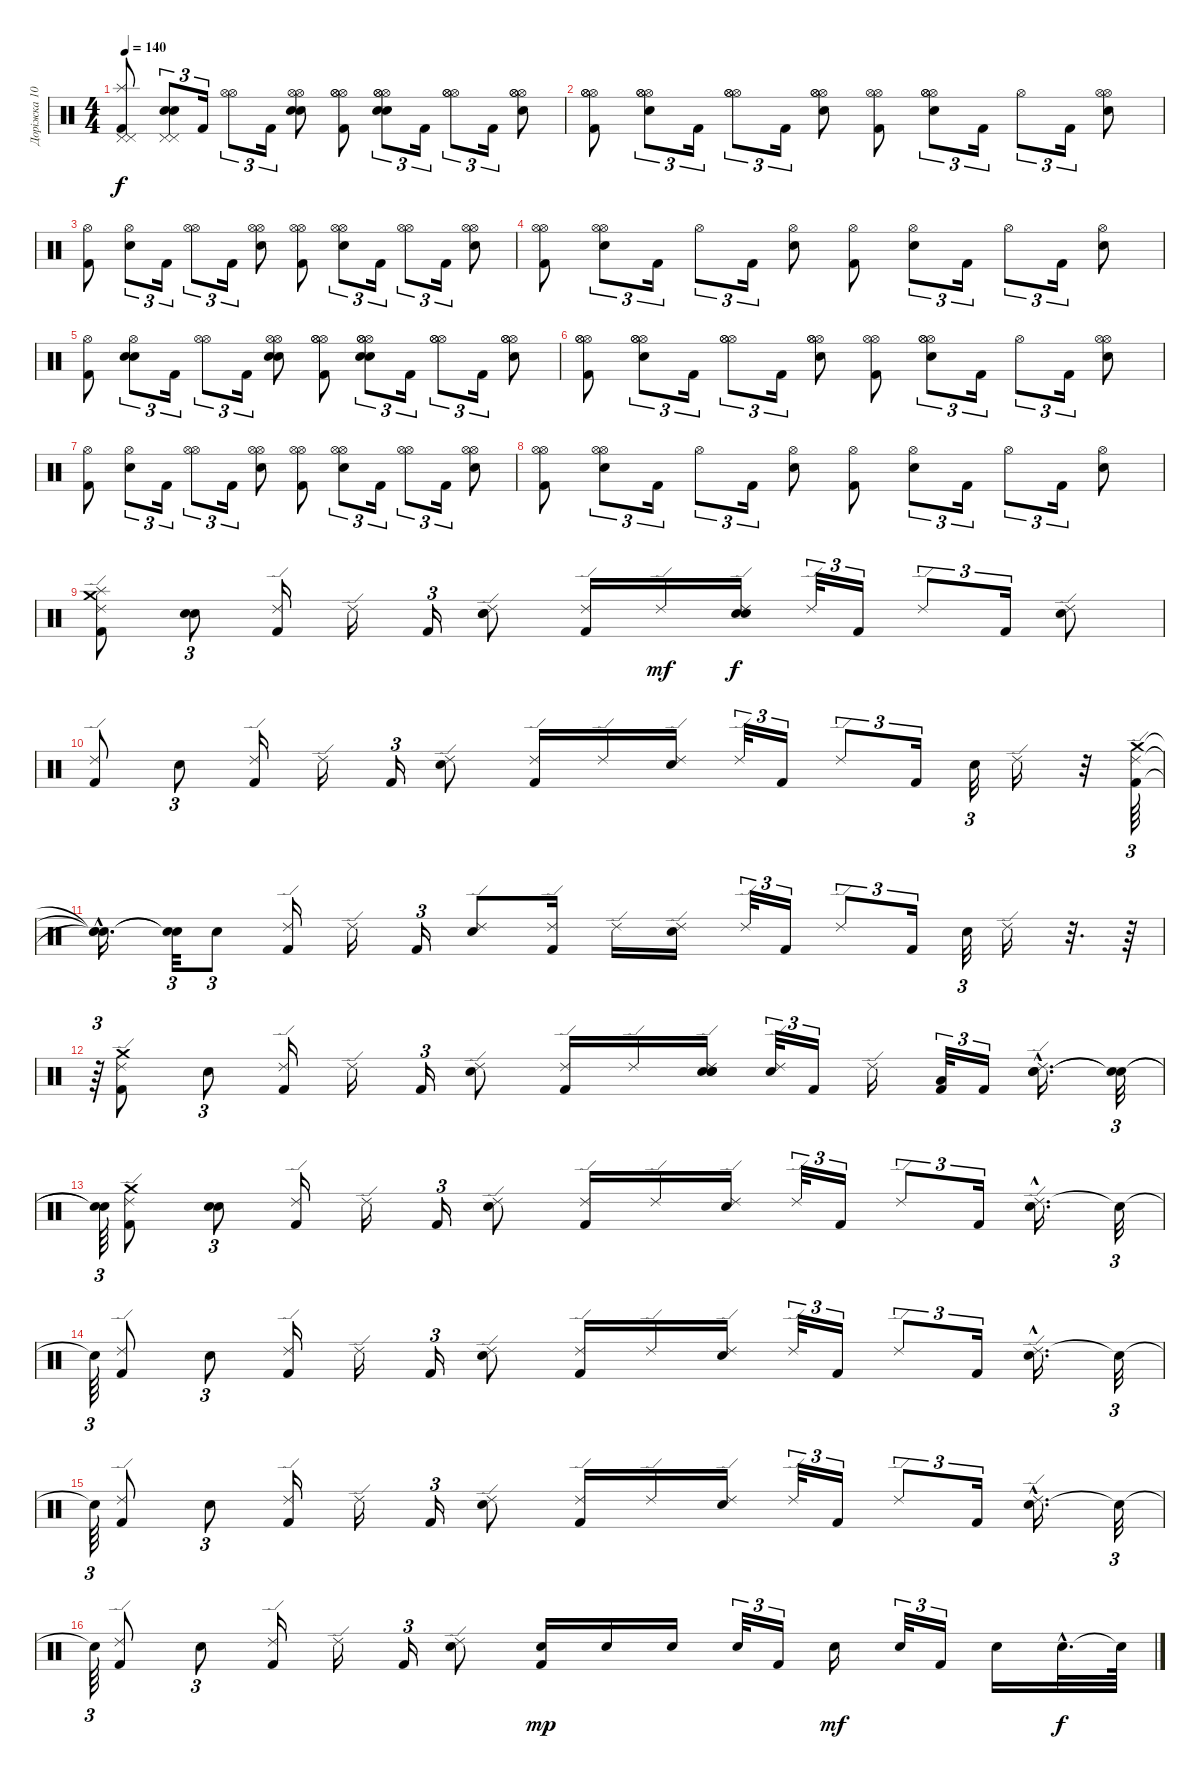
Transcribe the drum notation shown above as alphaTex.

\track ("Доріжка 10" "Доріжка 10") {instrument percussion}
\staff {score}
\articulation defaults
\ts (4 4)
\tempo 140
\clef neutral
\ks c
("Kick (hit) 2" "Splash (hit)" "Pedal Hi-Hat (hit)" "Pedal Hi-Hat (hit)").8{dy f} ("Electric Snare (hit)" "Pedal Hi-Hat (hit)" "Pedal Hi-Hat (hit)" "Electric Snare (hit)").8{tu (3 2)} "Kick (hit) 2".16{tu (3 2)} ("Hi-Hat (open)" "Hi-Hat (open)").8{tu (3 2)} "Kick (hit) 2".16{tu (3 2)} ("Hi-Hat (open)" "Hi-Hat (open)" "Electric Snare (hit)" "Electric Snare (hit)").8 ("Kick (hit) 2" "Hi-Hat (open)" "Hi-Hat (open)" "Hi-Hat (open)").8 ("Hi-Hat (open)" "Hi-Hat (open)" "Hi-Hat (open)" "Electric Snare (hit)" "Electric Snare (hit)").8{tu (3 2)} "Kick (hit) 2".16{tu (3 2)} ("Hi-Hat (open)" "Hi-Hat (open)" "Hi-Hat (open)").8{tu (3 2)} "Kick (hit) 2".16{tu (3 2)} ("Hi-Hat (open)" "Electric Snare (hit)" "Hi-Hat (open)" "Hi-Hat (open)").8 |
("Kick (hit) 2" "Hi-Hat (open)" "Hi-Hat (open)" "Hi-Hat (open)").8 ("Hi-Hat (open)" "Hi-Hat (open)" "Hi-Hat (open)" "Electric Snare (hit)").8{tu (3 2)} "Kick (hit) 2".16{tu (3 2)} ("Hi-Hat (open)" "Hi-Hat (open)" "Hi-Hat (open)").8{tu (3 2)} "Kick (hit) 2".16{tu (3 2)} ("Hi-Hat (open)" "Hi-Hat (open)" "Hi-Hat (open)" "Electric Snare (hit)").8 ("Kick (hit) 2" "Hi-Hat (open)" "Hi-Hat (open)").8 ("Electric Snare (hit)" "Hi-Hat (open)" "Hi-Hat (open)" "Hi-Hat (open)").8{tu (3 2)} "Kick (hit) 2".16{tu (3 2)} "Hi-Hat (open)".8{tu (3 2)} "Kick (hit) 2".16{tu (3 2)} ("Hi-Hat (open)" "Hi-Hat (open)" "Electric Snare (hit)").8 |
("Kick (hit) 2" "Hi-Hat (open)").8 ("Electric Snare (hit)" "Hi-Hat (open)").8{tu (3 2)} "Kick (hit) 2".16{tu (3 2)} ("Hi-Hat (open)" "Hi-Hat (open)").8{tu (3 2)} "Kick (hit) 2".16{tu (3 2)} ("Hi-Hat (open)" "Electric Snare (hit)" "Hi-Hat (open)").8 ("Kick (hit) 2" "Hi-Hat (open)" "Hi-Hat (open)").8 ("Hi-Hat (open)" "Hi-Hat (open)" "Electric Snare (hit)").8{tu (3 2)} "Kick (hit) 2".16{tu (3 2)} ("Hi-Hat (open)" "Hi-Hat (open)").8{tu (3 2)} "Kick (hit) 2".16{tu (3 2)} ("Hi-Hat (open)" "Electric Snare (hit)" "Hi-Hat (open)").8 |
("Kick (hit) 2" "Hi-Hat (open)" "Hi-Hat (open)").8 ("Electric Snare (hit)" "Hi-Hat (open)" "Hi-Hat (open)").8{tu (3 2)} "Kick (hit) 2".16{tu (3 2)} "Hi-Hat (open)".8{tu (3 2)} "Kick (hit) 2".16{tu (3 2)} ("Electric Snare (hit)" "Hi-Hat (open)").8 ("Hi-Hat (open)" "Kick (hit) 2").8 ("Hi-Hat (open)" "Electric Snare (hit)").8{tu (3 2)} "Kick (hit) 2".16{tu (3 2)} "Hi-Hat (open)".8{tu (3 2)} "Kick (hit) 2".16{tu (3 2)} ("Electric Snare (hit)" "Hi-Hat (open)").8 |
("Kick (hit) 2" "Hi-Hat (open)").8 ("Electric Snare (hit)" "Hi-Hat (open)" "Electric Snare (hit)").8{tu (3 2)} "Kick (hit) 2".16{tu (3 2)} ("Hi-Hat (open)" "Hi-Hat (open)").8{tu (3 2)} "Kick (hit) 2".16{tu (3 2)} ("Hi-Hat (open)" "Hi-Hat (open)" "Electric Snare (hit)" "Electric Snare (hit)").8 ("Kick (hit) 2" "Hi-Hat (open)" "Hi-Hat (open)" "Hi-Hat (open)").8 ("Hi-Hat (open)" "Hi-Hat (open)" "Hi-Hat (open)" "Electric Snare (hit)" "Electric Snare (hit)").8{tu (3 2)} "Kick (hit) 2".16{tu (3 2)} ("Hi-Hat (open)" "Hi-Hat (open)" "Hi-Hat (open)").8{tu (3 2)} "Kick (hit) 2".16{tu (3 2)} ("Hi-Hat (open)" "Electric Snare (hit)" "Hi-Hat (open)" "Hi-Hat (open)").8 |
("Kick (hit) 2" "Hi-Hat (open)" "Hi-Hat (open)" "Hi-Hat (open)").8 ("Hi-Hat (open)" "Hi-Hat (open)" "Hi-Hat (open)" "Electric Snare (hit)").8{tu (3 2)} "Kick (hit) 2".16{tu (3 2)} ("Hi-Hat (open)" "Hi-Hat (open)" "Hi-Hat (open)").8{tu (3 2)} "Kick (hit) 2".16{tu (3 2)} ("Hi-Hat (open)" "Hi-Hat (open)" "Hi-Hat (open)" "Electric Snare (hit)").8 ("Kick (hit) 2" "Hi-Hat (open)" "Hi-Hat (open)").8 ("Electric Snare (hit)" "Hi-Hat (open)" "Hi-Hat (open)" "Hi-Hat (open)").8{tu (3 2)} "Kick (hit) 2".16{tu (3 2)} "Hi-Hat (open)".8{tu (3 2)} "Kick (hit) 2".16{tu (3 2)} ("Hi-Hat (open)" "Hi-Hat (open)" "Electric Snare (hit)").8 |
("Kick (hit) 2" "Hi-Hat (open)").8 ("Electric Snare (hit)" "Hi-Hat (open)").8{tu (3 2)} "Kick (hit) 2".16{tu (3 2)} ("Hi-Hat (open)" "Hi-Hat (open)").8{tu (3 2)} "Kick (hit) 2".16{tu (3 2)} ("Hi-Hat (open)" "Electric Snare (hit)" "Hi-Hat (open)").8 ("Kick (hit) 2" "Hi-Hat (open)" "Hi-Hat (open)").8 ("Hi-Hat (open)" "Hi-Hat (open)" "Electric Snare (hit)").8{tu (3 2)} "Kick (hit) 2".16{tu (3 2)} ("Hi-Hat (open)" "Hi-Hat (open)").8{tu (3 2)} "Kick (hit) 2".16{tu (3 2)} ("Hi-Hat (open)" "Electric Snare (hit)" "Hi-Hat (open)").8 |
("Kick (hit) 2" "Hi-Hat (open)" "Hi-Hat (open)").8 ("Electric Snare (hit)" "Hi-Hat (open)" "Hi-Hat (open)").8{tu (3 2)} "Kick (hit) 2".16{tu (3 2)} "Hi-Hat (open)".8{tu (3 2)} "Kick (hit) 2".16{tu (3 2)} ("Electric Snare (hit)" "Hi-Hat (open)").8 ("Hi-Hat (open)" "Kick (hit) 2").8 ("Hi-Hat (open)" "Electric Snare (hit)").8{tu (3 2)} "Kick (hit) 2".16{tu (3 2)} "Hi-Hat (open)".8{tu (3 2)} "Kick (hit) 2".16{tu (3 2)} ("Electric Snare (hit)" "Hi-Hat (open)").8 |
("Ride (edge) 2" "Crash medium (hit)" "Kick (hit) 2" "Splash (hit)").8 ("Electric Snare (hit)" "Electric Snare (hit)").8{tu (3 2)} ("Ride (edge) 2" "Kick (hit) 2").16 "Ride (edge) 2".16 "Kick (hit) 2".16{tu (3 2)} ("Ride (edge) 2" "Electric Snare (hit)" "Electric Snare (hit)").8 ("Ride (edge) 2" "Kick (hit) 2").16 "Ride (edge) 2".16{dy mf} ("Ride (edge) 2" "Electric Snare (hit)" "Electric Snare (hit)").16{dy f} "Ride (edge) 2".32{tu (3 2)} "Kick (hit) 2".16{tu (3 2)} "Ride (edge) 2".8{tu (3 2)} "Kick (hit) 2".16{tu (3 2)} ("Electric Snare (hit)" "Ride (edge) 2").8 |
("Ride (edge) 2" "Kick (hit) 2").8 "Electric Snare (hit)".8{tu (3 2)} ("Ride (edge) 2" "Kick (hit) 2").16 "Ride (edge) 2".16 "Kick (hit) 2".16{tu (3 2)} ("Ride (edge) 2" "Electric Snare (hit)").8 ("Ride (edge) 2" "Kick (hit) 2").16 "Ride (edge) 2".16 ("Ride (edge) 2" "Electric Snare (hit)").16 "Ride (edge) 2".32{tu (3 2)} "Kick (hit) 2".16{tu (3 2)} "Ride (edge) 2".8{tu (3 2)} "Kick (hit) 2".16{tu (3 2)} "Electric Snare (hit)".32{tu (3 2)} "Ride (edge) 2".16 r.32 ("Ride (edge) 2" "Crash medium (hit)" "Kick (hit) 2").64{tu (3 2)} |
("Snare (hit)"{hac t} "Snare (hit)"{hac t} "Snare (hit)"{hac t}).16{d} ("Snare (hit)"{t} "Snare (hit)"{t}).32{tu (3 2)} "Electric Snare (hit)".8{tu (3 2)} ("Kick (hit) 2" "Ride (edge) 2").16 "Ride (edge) 2".16 "Kick (hit) 2".16{tu (3 2)} ("Ride (edge) 2" "Electric Snare (hit)").8 ("Ride (edge) 2" "Kick (hit) 2").16 "Ride (edge) 2".16 ("Ride (edge) 2" "Electric Snare (hit)").16 "Ride (edge) 2".32{tu (3 2)} "Kick (hit) 2".16{tu (3 2)} "Ride (edge) 2".8{tu (3 2)} "Kick (hit) 2".16{tu (3 2)} "Electric Snare (hit)".32{tu (3 2)} "Ride (edge) 2".16 r.32{d} r.64 |
r.64{tu (3 2)} ("Ride (edge) 2" "Crash medium (hit)" "Kick (hit) 2").8 "Electric Snare (hit)".8{tu (3 2)} ("Kick (hit) 2" "Ride (edge) 2").16 "Ride (edge) 2".16 "Kick (hit) 2".16{tu (3 2)} ("Ride (edge) 2" "Electric Snare (hit)").8 ("Ride (edge) 2" "Kick (hit) 2").16 "Ride (edge) 2".16 ("Ride (edge) 2" "Electric Snare (hit)" "Electric Snare (hit)" "Electric Snare (hit)").16 ("Ride (edge) 2" "Electric Snare (hit)").32{tu (3 2)} "Kick (hit) 2".16{tu (3 2)} "Ride (edge) 2".16 ("Kick (hit) 2" "Low Tom (hit)").32{tu (3 2)} "Kick (hit) 2".16{tu (3 2)} ("Electric Snare (hit)"{hac} "Electric Snare (hit)"{hac} "Ride (edge) 2").16{d} ("Snare (hit)"{t} "Snare (hit)"{t}).32{tu (3 2)} |
("Snare (hit)"{t} "Snare (hit)"{t}).64{tu (3 2)} ("Ride (edge) 2" "Kick (hit) 2" "Crash medium (hit)").8 ("Electric Snare (hit)" "Electric Snare (hit)").8{tu (3 2)} ("Ride (edge) 2" "Kick (hit) 2").16 "Ride (edge) 2".16 "Kick (hit) 2".16{tu (3 2)} ("Ride (edge) 2" "Electric Snare (hit)").8 ("Ride (edge) 2" "Kick (hit) 2").16 "Ride (edge) 2".16 ("Ride (edge) 2" "Electric Snare (hit)").16 "Ride (edge) 2".32{tu (3 2)} "Kick (hit) 2".16{tu (3 2)} "Ride (edge) 2".8{tu (3 2)} "Kick (hit) 2".16{tu (3 2)} ("Ride (edge) 2" "Electric Snare (hit)"{hac}).16{d} "Snare (hit)"{t}.32{tu (3 2)} |
"Snare (hit)"{t}.64{tu (3 2)} ("Ride (edge) 2" "Kick (hit) 2").8 "Electric Snare (hit)".8{tu (3 2)} ("Ride (edge) 2" "Kick (hit) 2").16 "Ride (edge) 2".16 "Kick (hit) 2".16{tu (3 2)} ("Electric Snare (hit)" "Ride (edge) 2").8 ("Ride (edge) 2" "Kick (hit) 2").16 "Ride (edge) 2".16 ("Ride (edge) 2" "Electric Snare (hit)").16 "Ride (edge) 2".32{tu (3 2)} "Kick (hit) 2".16{tu (3 2)} "Ride (edge) 2".8{tu (3 2)} "Kick (hit) 2".16{tu (3 2)} ("Ride (edge) 2" "Electric Snare (hit)"{hac}).16{d} "Snare (hit)"{t}.32{tu (3 2)} |
"Snare (hit)"{t}.64{tu (3 2)} ("Kick (hit) 2" "Ride (edge) 2").8 "Electric Snare (hit)".8{tu (3 2)} ("Kick (hit) 2" "Ride (edge) 2").16 "Ride (edge) 2".16 "Kick (hit) 2".16{tu (3 2)} ("Electric Snare (hit)" "Ride (edge) 2").8 ("Kick (hit) 2" "Ride (edge) 2").16 "Ride (edge) 2".16 ("Electric Snare (hit)" "Ride (edge) 2").16 "Ride (edge) 2".32{tu (3 2)} "Kick (hit) 2".16{tu (3 2)} "Ride (edge) 2".8{tu (3 2)} "Kick (hit) 2".16{tu (3 2)} ("Electric Snare (hit)"{hac} "Ride (edge) 2").16{d} "Snare (hit)"{t}.32{tu (3 2)} |
"Snare (hit)"{t}.64{tu (3 2)} ("Kick (hit) 2" "Ride (edge) 2").8 "Electric Snare (hit)".8{tu (3 2)} ("Kick (hit) 2" "Ride (edge) 2").16 "Ride (edge) 2".16 "Kick (hit) 2".16{tu (3 2)} ("Electric Snare (hit)" "Ride (edge) 2").8 ("Electric Snare (hit)" "Kick (hit) 2").16{dy mp} "Electric Snare (hit)".16 "Electric Snare (hit)".16 "Electric Snare (hit)".32{tu (3 2)} "Kick (hit) 2".16{tu (3 2)} "Electric Snare (hit)".16{dy mf} "Electric Snare (hit)".32{tu (3 2)} "Kick (hit) 2".16{tu (3 2)} "Electric Snare (hit)".16 "Electric Snare (hit)"{hac}.32{d dy f} "Snare (hit)"{t}.64
